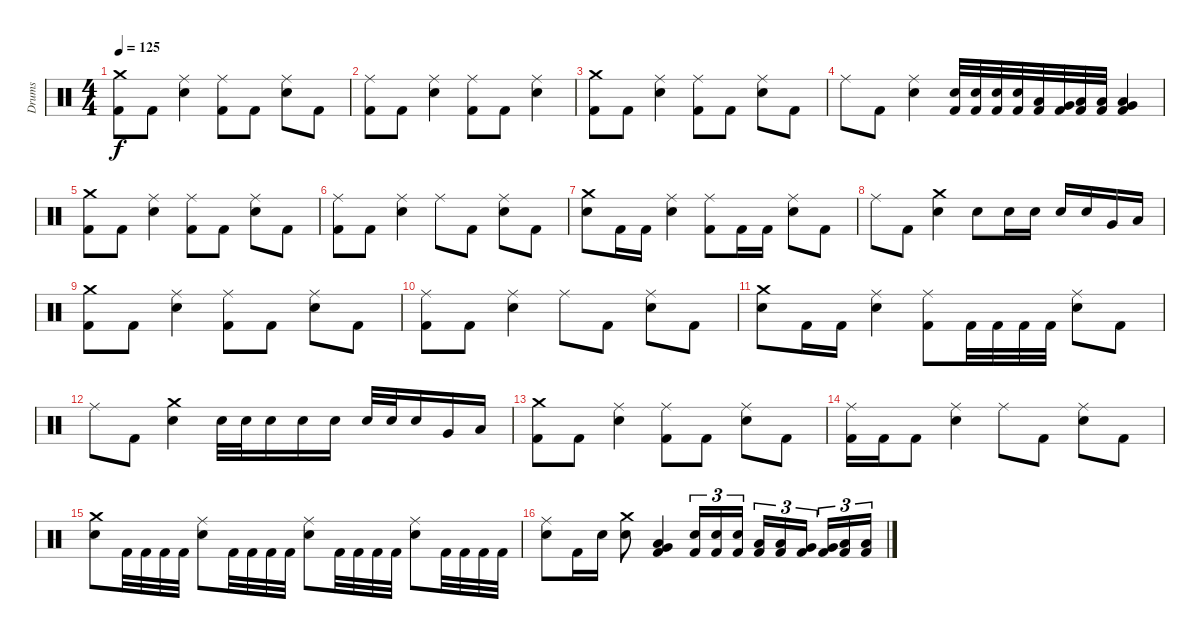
\track ("Drums" "Drums") {instrument percussion}
\staff {score}
\articulation defaults
\ts (4 4)
\tempo 125
\clef neutral
\ks c
("Crash medium (hit)" "Kick (hit) 2").8{dy f} "Kick (hit) 2".8 ("Ride (middle)" "Electric Snare (hit)").4 ("Ride (middle)" "Kick (hit) 2").8 "Kick (hit) 2".8 ("Ride (middle)" "Electric Snare (hit)").8 "Kick (hit) 2".8 |
("Ride (middle)" "Kick (hit) 2").8 "Kick (hit) 2".8 ("Ride (middle)" "Electric Snare (hit)").4 ("Ride (middle)" "Kick (hit) 2").8 "Kick (hit) 2".8 ("Ride (middle)" "Electric Snare (hit)").4 |
("Crash medium (hit)" "Kick (hit) 2").8 "Kick (hit) 2".8 ("Ride (middle)" "Electric Snare (hit)").4 ("Ride (middle)" "Kick (hit) 2").8 "Kick (hit) 2".8 ("Ride (middle)" "Electric Snare (hit)").8 "Kick (hit) 2".8 |
"Ride (middle)".8 "Kick (hit) 2".8 ("Ride (middle)" "Electric Snare (hit)").4 ("Electric Snare (hit)" "Kick (hit) 2").32 ("Electric Snare (hit)" "Kick (hit) 2").32 ("Electric Snare (hit)" "Kick (hit) 2").32 ("Electric Snare (hit)" "Kick (hit) 2").32 ("Low Tom (hit)" "Kick (hit) 2").32 ("Very Low Tom (hit)" "Kick (hit) 2").32 ("Low Floor Tom (hit)" "Kick (hit) 2").32 ("Low Tom (hit)" "Kick (hit) 2").32 ("Low Floor Tom (hit)" "Very Low Tom (hit)" "Kick (hit) 2").4 |
("Crash medium (hit)" "Kick (hit) 2").8 "Kick (hit) 2".8 ("Ride (middle)" "Electric Snare (hit)").4 ("Ride (middle)" "Kick (hit) 2").8 "Kick (hit) 2".8 ("Ride (middle)" "Electric Snare (hit)").8 "Kick (hit) 2".8 |
("Ride (middle)" "Kick (hit) 2").8 "Kick (hit) 2".8 ("Ride (middle)" "Electric Snare (hit)").4 "Ride (middle)".8 "Kick (hit) 2".8 ("Ride (middle)" "Electric Snare (hit)").8 "Kick (hit) 2".8 |
("Crash medium (hit)" "Electric Snare (hit)").8 "Kick (hit) 2".16 "Kick (hit) 2".16 ("Ride (middle)" "Electric Snare (hit)").4 ("Ride (middle)" "Kick (hit) 2").8 "Kick (hit) 2".16 "Kick (hit) 2".16 ("Ride (middle)" "Electric Snare (hit)").8 "Kick (hit) 2".8 |
"Ride (middle)".8 "Kick (hit) 2".8 ("Crash medium (hit)" "Electric Snare (hit)").4 "Electric Snare (hit)".8 "Electric Snare (hit)".16 "Electric Snare (hit)".16 "Electric Snare (hit)".16 "Electric Snare (hit)".16 "Very Low Tom (hit)".16 "Low Floor Tom (hit)".16 |
("Crash medium (hit)" "Kick (hit) 2").8 "Kick (hit) 2".8 ("Ride (middle)" "Electric Snare (hit)").4 ("Ride (middle)" "Kick (hit) 2").8 "Kick (hit) 2".8 ("Ride (middle)" "Electric Snare (hit)").8 "Kick (hit) 2".8 |
("Ride (middle)" "Kick (hit) 2").8 "Kick (hit) 2".8 ("Ride (middle)" "Electric Snare (hit)").4 "Ride (middle)".8 "Kick (hit) 2".8 ("Ride (middle)" "Electric Snare (hit)").8 "Kick (hit) 2".8 |
("Crash medium (hit)" "Electric Snare (hit)").8 "Kick (hit) 2".16 "Kick (hit) 2".16 ("Ride (middle)" "Electric Snare (hit)").4 ("Ride (middle)" "Kick (hit) 2").8 "Kick (hit) 2".32 "Kick (hit) 2".32 "Kick (hit) 2".32 "Kick (hit) 2".32 ("Ride (middle)" "Electric Snare (hit)").8 "Kick (hit) 2".8 |
"Ride (middle)".8 "Kick (hit) 2".8 ("Crash medium (hit)" "Electric Snare (hit)").4 "Electric Snare (hit)".32 "Electric Snare (hit)".32 "Electric Snare (hit)".16 "Electric Snare (hit)".16 "Electric Snare (hit)".16 "Electric Snare (hit)".32 "Electric Snare (hit)".32 "Electric Snare (hit)".16 "Very Low Tom (hit)".16 "Low Floor Tom (hit)".16 |
("Crash medium (hit)" "Kick (hit) 2").8 "Kick (hit) 2".8 ("Ride (middle)" "Electric Snare (hit)").4 ("Ride (middle)" "Kick (hit) 2").8 "Kick (hit) 2".8 ("Ride (middle)" "Electric Snare (hit)").8 "Kick (hit) 2".8 |
("Ride (middle)" "Kick (hit) 2").16 "Kick (hit) 2".16 "Kick (hit) 2".8 ("Ride (middle)" "Electric Snare (hit)").4 "Ride (middle)".8 "Kick (hit) 2".8 ("Ride (middle)" "Electric Snare (hit)").8 "Kick (hit) 2".8 |
("Crash medium (hit)" "Electric Snare (hit)").8 "Kick (hit) 2".32 "Kick (hit) 2".32 "Kick (hit) 2".32 "Kick (hit) 2".32 ("Ride (middle)" "Electric Snare (hit)").8 "Kick (hit) 2".32 "Kick (hit) 2".32 "Kick (hit) 2".32 "Kick (hit) 2".32 ("Ride (middle)" "Electric Snare (hit)").8 "Kick (hit) 2".32 "Kick (hit) 2".32 "Kick (hit) 2".32 "Kick (hit) 2".32 ("Ride (middle)" "Electric Snare (hit)").8 "Kick (hit) 2".32 "Kick (hit) 2".32 "Kick (hit) 2".32 "Kick (hit) 2".32 |
("Ride (middle)" "Electric Snare (hit)").8 "Kick (hit) 2".16 "Electric Snare (hit)".16 ("Crash medium (hit)" "Electric Snare (hit)").8 ("Low Floor Tom (hit)" "Very Low Tom (hit)" "Kick (hit) 2").4 ("Electric Snare (hit)" "Kick (hit) 2").16{tu (3 2)} ("Electric Snare (hit)" "Kick (hit) 2").16{tu (3 2)} ("Electric Snare (hit)" "Kick (hit) 2").16{tu (3 2)} ("Low Tom (hit)" "Kick (hit) 2").16{tu (3 2)} ("Low Tom (hit)" "Kick (hit) 2").16{tu (3 2)} ("Very Low Tom (hit)" "Kick (hit) 2").16{tu (3 2) beam splitsecondary} ("Very Low Tom (hit)" "Kick (hit) 2").16{tu (3 2)} ("Low Floor Tom (hit)" "Kick (hit) 2").16{tu (3 2)} ("Low Floor Tom (hit)" "Kick (hit) 2").16{tu (3 2)}
